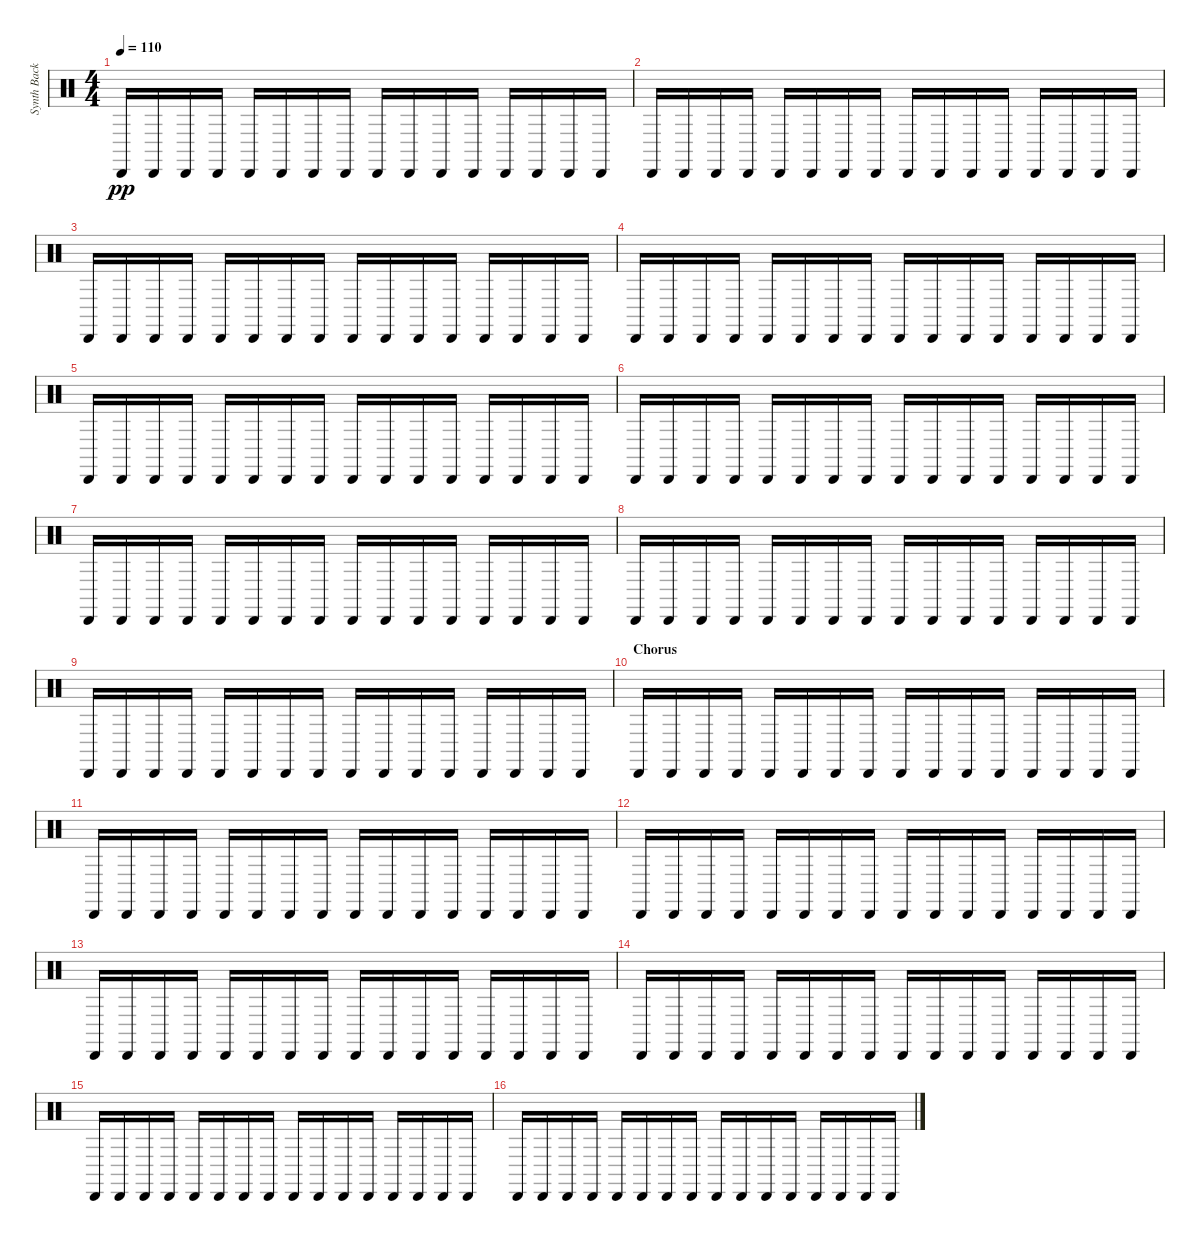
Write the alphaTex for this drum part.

\track ("Synth Background Rhythm" "Synth Back") {instrument percussion}
\staff {score}
\articulation defaults
\ts (4 4)
\tempo 110
\clef neutral
\ks c "Cabasa (hit)".16{dy pp} "Cabasa (hit)".16 "Cabasa (hit)".16 "Cabasa (hit)".16 "Cabasa (hit)".16 "Cabasa (hit)".16 "Cabasa (hit)".16 "Cabasa (hit)".16 "Cabasa (hit)".16 "Cabasa (hit)".16 "Cabasa (hit)".16 "Cabasa (hit)".16 "Cabasa (hit)".16 "Cabasa (hit)".16 "Cabasa (hit)".16 "Cabasa (hit)".16
|
"Cabasa (hit)".16 "Cabasa (hit)".16 "Cabasa (hit)".16 "Cabasa (hit)".16 "Cabasa (hit)".16 "Cabasa (hit)".16 "Cabasa (hit)".16 "Cabasa (hit)".16 "Cabasa (hit)".16 "Cabasa (hit)".16 "Cabasa (hit)".16 "Cabasa (hit)".16 "Cabasa (hit)".16 "Cabasa (hit)".16 "Cabasa (hit)".16 "Cabasa (hit)".16 |
"Cabasa (hit)".16 "Cabasa (hit)".16 "Cabasa (hit)".16 "Cabasa (hit)".16 "Cabasa (hit)".16 "Cabasa (hit)".16 "Cabasa (hit)".16 "Cabasa (hit)".16 "Cabasa (hit)".16 "Cabasa (hit)".16 "Cabasa (hit)".16 "Cabasa (hit)".16 "Cabasa (hit)".16 "Cabasa (hit)".16 "Cabasa (hit)".16 "Cabasa (hit)".16 |
"Cabasa (hit)".16 "Cabasa (hit)".16 "Cabasa (hit)".16 "Cabasa (hit)".16 "Cabasa (hit)".16 "Cabasa (hit)".16 "Cabasa (hit)".16 "Cabasa (hit)".16 "Cabasa (hit)".16 "Cabasa (hit)".16 "Cabasa (hit)".16 "Cabasa (hit)".16 "Cabasa (hit)".16 "Cabasa (hit)".16 "Cabasa (hit)".16 "Cabasa (hit)".16 |
"Cabasa (hit)".16 "Cabasa (hit)".16 "Cabasa (hit)".16 "Cabasa (hit)".16 "Cabasa (hit)".16 "Cabasa (hit)".16 "Cabasa (hit)".16 "Cabasa (hit)".16 "Cabasa (hit)".16 "Cabasa (hit)".16 "Cabasa (hit)".16 "Cabasa (hit)".16 "Cabasa (hit)".16 "Cabasa (hit)".16 "Cabasa (hit)".16 "Cabasa (hit)".16 |
"Cabasa (hit)".16 "Cabasa (hit)".16 "Cabasa (hit)".16 "Cabasa (hit)".16 "Cabasa (hit)".16 "Cabasa (hit)".16 "Cabasa (hit)".16 "Cabasa (hit)".16 "Cabasa (hit)".16 "Cabasa (hit)".16 "Cabasa (hit)".16 "Cabasa (hit)".16 "Cabasa (hit)".16 "Cabasa (hit)".16 "Cabasa (hit)".16 "Cabasa (hit)".16 |
"Cabasa (hit)".16 "Cabasa (hit)".16 "Cabasa (hit)".16 "Cabasa (hit)".16 "Cabasa (hit)".16 "Cabasa (hit)".16 "Cabasa (hit)".16 "Cabasa (hit)".16 "Cabasa (hit)".16 "Cabasa (hit)".16 "Cabasa (hit)".16 "Cabasa (hit)".16 "Cabasa (hit)".16 "Cabasa (hit)".16 "Cabasa (hit)".16 "Cabasa (hit)".16 |
"Cabasa (hit)".16 "Cabasa (hit)".16 "Cabasa (hit)".16 "Cabasa (hit)".16 "Cabasa (hit)".16 "Cabasa (hit)".16 "Cabasa (hit)".16 "Cabasa (hit)".16 "Cabasa (hit)".16 "Cabasa (hit)".16 "Cabasa (hit)".16 "Cabasa (hit)".16 "Cabasa (hit)".16 "Cabasa (hit)".16 "Cabasa (hit)".16 "Cabasa (hit)".16 |
"Cabasa (hit)".16 "Cabasa (hit)".16 "Cabasa (hit)".16 "Cabasa (hit)".16 "Cabasa (hit)".16 "Cabasa (hit)".16 "Cabasa (hit)".16 "Cabasa (hit)".16 "Cabasa (hit)".16 "Cabasa (hit)".16 "Cabasa (hit)".16 "Cabasa (hit)".16 "Cabasa (hit)".16 "Cabasa (hit)".16 "Cabasa (hit)".16 "Cabasa (hit)".16 |
\section ("" "Chorus")
"Cabasa (hit)".16 "Cabasa (hit)".16 "Cabasa (hit)".16 "Cabasa (hit)".16 "Cabasa (hit)".16 "Cabasa (hit)".16 "Cabasa (hit)".16 "Cabasa (hit)".16 "Cabasa (hit)".16 "Cabasa (hit)".16 "Cabasa (hit)".16 "Cabasa (hit)".16 "Cabasa (hit)".16 "Cabasa (hit)".16 "Cabasa (hit)".16 "Cabasa (hit)".16 |
"Cabasa (hit)".16 "Cabasa (hit)".16 "Cabasa (hit)".16 "Cabasa (hit)".16 "Cabasa (hit)".16 "Cabasa (hit)".16 "Cabasa (hit)".16 "Cabasa (hit)".16 "Cabasa (hit)".16 "Cabasa (hit)".16 "Cabasa (hit)".16 "Cabasa (hit)".16 "Cabasa (hit)".16 "Cabasa (hit)".16 "Cabasa (hit)".16 "Cabasa (hit)".16 |
"Cabasa (hit)".16 "Cabasa (hit)".16 "Cabasa (hit)".16 "Cabasa (hit)".16 "Cabasa (hit)".16 "Cabasa (hit)".16 "Cabasa (hit)".16 "Cabasa (hit)".16 "Cabasa (hit)".16 "Cabasa (hit)".16 "Cabasa (hit)".16 "Cabasa (hit)".16 "Cabasa (hit)".16 "Cabasa (hit)".16 "Cabasa (hit)".16 "Cabasa (hit)".16 |
"Cabasa (hit)".16 "Cabasa (hit)".16 "Cabasa (hit)".16 "Cabasa (hit)".16 "Cabasa (hit)".16 "Cabasa (hit)".16 "Cabasa (hit)".16 "Cabasa (hit)".16 "Cabasa (hit)".16 "Cabasa (hit)".16 "Cabasa (hit)".16 "Cabasa (hit)".16 "Cabasa (hit)".16 "Cabasa (hit)".16 "Cabasa (hit)".16 "Cabasa (hit)".16 |
"Cabasa (hit)".16 "Cabasa (hit)".16 "Cabasa (hit)".16 "Cabasa (hit)".16 "Cabasa (hit)".16 "Cabasa (hit)".16 "Cabasa (hit)".16 "Cabasa (hit)".16 "Cabasa (hit)".16 "Cabasa (hit)".16 "Cabasa (hit)".16 "Cabasa (hit)".16 "Cabasa (hit)".16 "Cabasa (hit)".16 "Cabasa (hit)".16 "Cabasa (hit)".16 |
"Cabasa (hit)".16 "Cabasa (hit)".16 "Cabasa (hit)".16 "Cabasa (hit)".16 "Cabasa (hit)".16 "Cabasa (hit)".16 "Cabasa (hit)".16 "Cabasa (hit)".16 "Cabasa (hit)".16 "Cabasa (hit)".16 "Cabasa (hit)".16 "Cabasa (hit)".16 "Cabasa (hit)".16 "Cabasa (hit)".16 "Cabasa (hit)".16 "Cabasa (hit)".16 |
"Cabasa (hit)".16 "Cabasa (hit)".16 "Cabasa (hit)".16 "Cabasa (hit)".16 "Cabasa (hit)".16 "Cabasa (hit)".16 "Cabasa (hit)".16 "Cabasa (hit)".16 "Cabasa (hit)".16 "Cabasa (hit)".16 "Cabasa (hit)".16 "Cabasa (hit)".16 "Cabasa (hit)".16 "Cabasa (hit)".16 "Cabasa (hit)".16 "Cabasa (hit)".16
